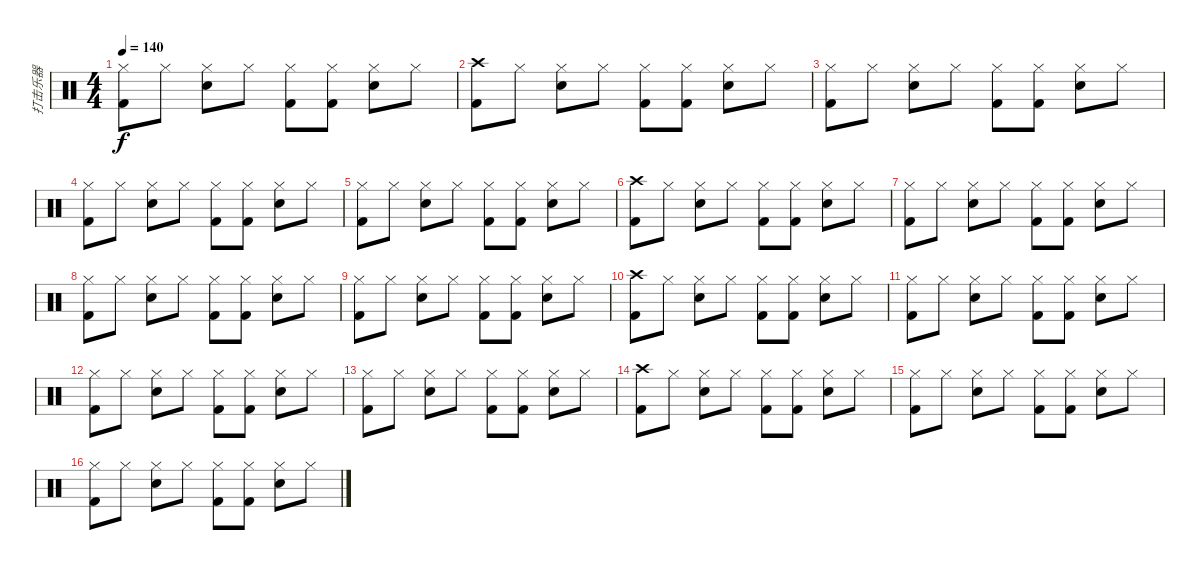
\track ("打击乐器" "打击乐器") {instrument percussion}
\staff {score}
\articulation defaults
\ts (4 4)
\tempo 140
\clef neutral
\ks c
("Hi-Hat (closed)" "Kick (hit) 2").8{dy f} "Hi-Hat (closed)".8 ("Hi-Hat (closed)" "Electric Snare (hit)").8 "Hi-Hat (closed)".8 ("Hi-Hat (closed)" "Kick (hit) 2").8 ("Hi-Hat (closed)" "Kick (hit) 2").8 ("Hi-Hat (closed)" "Electric Snare (hit)").8 "Hi-Hat (closed)".8 |
("Crash high (hit)" "Kick (hit) 2").8 "Hi-Hat (closed)".8 ("Hi-Hat (closed)" "Electric Snare (hit)").8 "Hi-Hat (closed)".8 ("Hi-Hat (closed)" "Kick (hit) 2").8 ("Hi-Hat (closed)" "Kick (hit) 2").8 ("Hi-Hat (closed)" "Electric Snare (hit)").8 "Hi-Hat (closed)".8 |
("Hi-Hat (closed)" "Kick (hit) 2").8 "Hi-Hat (closed)".8 ("Hi-Hat (closed)" "Electric Snare (hit)").8 "Hi-Hat (closed)".8 ("Hi-Hat (closed)" "Kick (hit) 2").8 ("Hi-Hat (closed)" "Kick (hit) 2").8 ("Hi-Hat (closed)" "Electric Snare (hit)").8 "Hi-Hat (closed)".8 |
("Hi-Hat (closed)" "Kick (hit) 2").8 "Hi-Hat (closed)".8 ("Hi-Hat (closed)" "Electric Snare (hit)").8 "Hi-Hat (closed)".8 ("Hi-Hat (closed)" "Kick (hit) 2").8 ("Hi-Hat (closed)" "Kick (hit) 2").8 ("Hi-Hat (closed)" "Electric Snare (hit)").8 "Hi-Hat (closed)".8 |
("Hi-Hat (closed)" "Kick (hit) 2").8 "Hi-Hat (closed)".8 ("Hi-Hat (closed)" "Electric Snare (hit)").8 "Hi-Hat (closed)".8 ("Hi-Hat (closed)" "Kick (hit) 2").8 ("Hi-Hat (closed)" "Kick (hit) 2").8 ("Hi-Hat (closed)" "Electric Snare (hit)").8 "Hi-Hat (closed)".8 |
("Crash high (hit)" "Kick (hit) 2").8 "Hi-Hat (closed)".8 ("Hi-Hat (closed)" "Electric Snare (hit)").8 "Hi-Hat (closed)".8 ("Hi-Hat (closed)" "Kick (hit) 2").8 ("Hi-Hat (closed)" "Kick (hit) 2").8 ("Hi-Hat (closed)" "Electric Snare (hit)").8 "Hi-Hat (closed)".8 |
("Hi-Hat (closed)" "Kick (hit) 2").8 "Hi-Hat (closed)".8 ("Hi-Hat (closed)" "Electric Snare (hit)").8 "Hi-Hat (closed)".8 ("Hi-Hat (closed)" "Kick (hit) 2").8 ("Hi-Hat (closed)" "Kick (hit) 2").8 ("Hi-Hat (closed)" "Electric Snare (hit)").8 "Hi-Hat (closed)".8 |
("Hi-Hat (closed)" "Kick (hit) 2").8 "Hi-Hat (closed)".8 ("Hi-Hat (closed)" "Electric Snare (hit)").8 "Hi-Hat (closed)".8 ("Hi-Hat (closed)" "Kick (hit) 2").8 ("Hi-Hat (closed)" "Kick (hit) 2").8 ("Hi-Hat (closed)" "Electric Snare (hit)").8 "Hi-Hat (closed)".8 |
("Hi-Hat (closed)" "Kick (hit) 2").8 "Hi-Hat (closed)".8 ("Hi-Hat (closed)" "Electric Snare (hit)").8 "Hi-Hat (closed)".8 ("Hi-Hat (closed)" "Kick (hit) 2").8 ("Hi-Hat (closed)" "Kick (hit) 2").8 ("Hi-Hat (closed)" "Electric Snare (hit)").8 "Hi-Hat (closed)".8 |
("Crash high (hit)" "Kick (hit) 2").8 "Hi-Hat (closed)".8 ("Hi-Hat (closed)" "Electric Snare (hit)").8 "Hi-Hat (closed)".8 ("Hi-Hat (closed)" "Kick (hit) 2").8 ("Hi-Hat (closed)" "Kick (hit) 2").8 ("Hi-Hat (closed)" "Electric Snare (hit)").8 "Hi-Hat (closed)".8 |
("Hi-Hat (closed)" "Kick (hit) 2").8 "Hi-Hat (closed)".8 ("Hi-Hat (closed)" "Electric Snare (hit)").8 "Hi-Hat (closed)".8 ("Hi-Hat (closed)" "Kick (hit) 2").8 ("Hi-Hat (closed)" "Kick (hit) 2").8 ("Hi-Hat (closed)" "Electric Snare (hit)").8 "Hi-Hat (closed)".8 |
("Hi-Hat (closed)" "Kick (hit) 2").8 "Hi-Hat (closed)".8 ("Hi-Hat (closed)" "Electric Snare (hit)").8 "Hi-Hat (closed)".8 ("Hi-Hat (closed)" "Kick (hit) 2").8 ("Hi-Hat (closed)" "Kick (hit) 2").8 ("Hi-Hat (closed)" "Electric Snare (hit)").8 "Hi-Hat (closed)".8 |
("Hi-Hat (closed)" "Kick (hit) 2").8 "Hi-Hat (closed)".8 ("Hi-Hat (closed)" "Electric Snare (hit)").8 "Hi-Hat (closed)".8 ("Hi-Hat (closed)" "Kick (hit) 2").8 ("Hi-Hat (closed)" "Kick (hit) 2").8 ("Hi-Hat (closed)" "Electric Snare (hit)").8 "Hi-Hat (closed)".8 |
("Crash high (hit)" "Kick (hit) 2").8 "Hi-Hat (closed)".8 ("Hi-Hat (closed)" "Electric Snare (hit)").8 "Hi-Hat (closed)".8 ("Hi-Hat (closed)" "Kick (hit) 2").8 ("Hi-Hat (closed)" "Kick (hit) 2").8 ("Hi-Hat (closed)" "Electric Snare (hit)").8 "Hi-Hat (closed)".8 |
("Hi-Hat (closed)" "Kick (hit) 2").8 "Hi-Hat (closed)".8 ("Hi-Hat (closed)" "Electric Snare (hit)").8 "Hi-Hat (closed)".8 ("Hi-Hat (closed)" "Kick (hit) 2").8 ("Hi-Hat (closed)" "Kick (hit) 2").8 ("Hi-Hat (closed)" "Electric Snare (hit)").8 "Hi-Hat (closed)".8 |
("Hi-Hat (closed)" "Kick (hit) 2").8 "Hi-Hat (closed)".8 ("Hi-Hat (closed)" "Electric Snare (hit)").8 "Hi-Hat (closed)".8 ("Hi-Hat (closed)" "Kick (hit) 2").8 ("Hi-Hat (closed)" "Kick (hit) 2").8 ("Hi-Hat (closed)" "Electric Snare (hit)").8 "Hi-Hat (closed)".8
